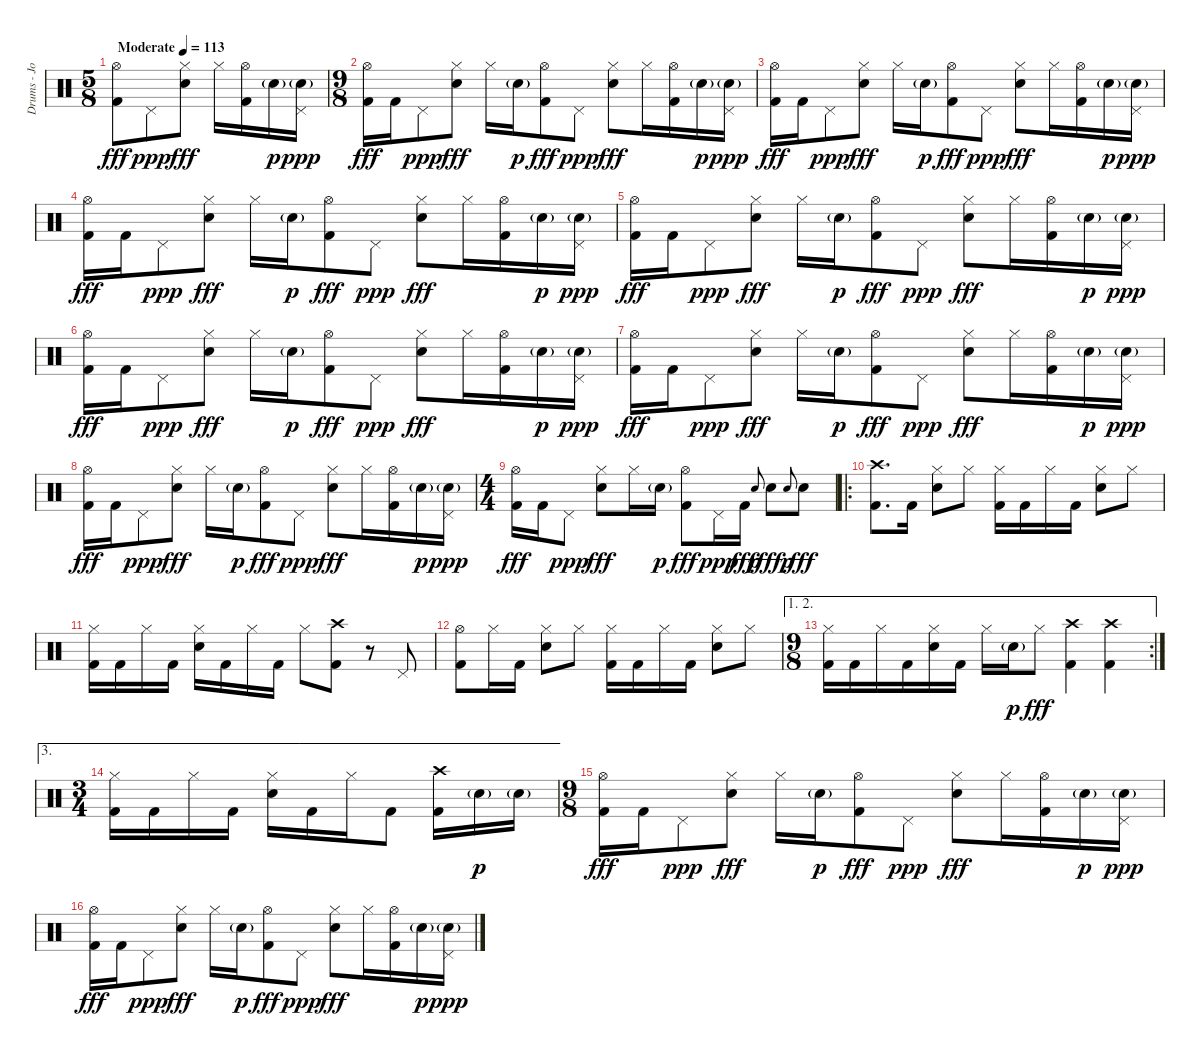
\track ("Drums - John Bonham" "Drums - Jo") {instrument percussion}
\staff {score}
\articulation defaults
\ts (5 8)
\tempo (113 "Moderate")
\clef neutral
\ks c
("Hi-Hat (open)" "Kick (hit) 2").8{dy fff} "Pedal Hi-Hat (hit)".8{dy ppp} ("Hi-Hat (closed)" "Electric Snare (hit)").8{dy fff} "Hi-Hat (closed)".16 ("Hi-Hat (open)" "Kick (hit) 2").16 "Electric Snare (hit)"{g}.16{dy p} ("Electric Snare (hit)"{g} "Pedal Hi-Hat (hit)").16{dy ppp} |
\ts (9 8)
("Hi-Hat (open)" "Kick (hit) 2").16{dy fff} "Kick (hit) 2".16 "Pedal Hi-Hat (hit)".8{dy ppp} ("Hi-Hat (closed)" "Electric Snare (hit)").8{dy fff} "Hi-Hat (closed)".16 "Electric Snare (hit)"{g}.16{dy p} ("Hi-Hat (open)" "Kick (hit) 2").8{dy fff} "Pedal Hi-Hat (hit)".8{dy ppp} ("Hi-Hat (closed)" "Electric Snare (hit)").8{dy fff} "Hi-Hat (closed)".16 ("Hi-Hat (open)" "Kick (hit) 2").16 "Electric Snare (hit)"{g}.16{dy p} ("Electric Snare (hit)"{g} "Pedal Hi-Hat (hit)").16{dy ppp} |
("Hi-Hat (open)" "Kick (hit) 2").16{dy fff} "Kick (hit) 2".16 "Pedal Hi-Hat (hit)".8{dy ppp} ("Hi-Hat (closed)" "Electric Snare (hit)").8{dy fff} "Hi-Hat (closed)".16 "Electric Snare (hit)"{g}.16{dy p} ("Hi-Hat (open)" "Kick (hit) 2").8{dy fff} "Pedal Hi-Hat (hit)".8{dy ppp} ("Hi-Hat (closed)" "Electric Snare (hit)").8{dy fff} "Hi-Hat (closed)".16 ("Hi-Hat (open)" "Kick (hit) 2").16 "Electric Snare (hit)"{g}.16{dy p} ("Electric Snare (hit)"{g} "Pedal Hi-Hat (hit)").16{dy ppp} |
("Hi-Hat (open)" "Kick (hit) 2").16{dy fff} "Kick (hit) 2".16 "Pedal Hi-Hat (hit)".8{dy ppp} ("Hi-Hat (closed)" "Electric Snare (hit)").8{dy fff} "Hi-Hat (closed)".16 "Electric Snare (hit)"{g}.16{dy p} ("Hi-Hat (open)" "Kick (hit) 2").8{dy fff} "Pedal Hi-Hat (hit)".8{dy ppp} ("Hi-Hat (closed)" "Electric Snare (hit)").8{dy fff} "Hi-Hat (closed)".16 ("Hi-Hat (open)" "Kick (hit) 2").16 "Electric Snare (hit)"{g}.16{dy p} ("Electric Snare (hit)"{g} "Pedal Hi-Hat (hit)").16{dy ppp} |
("Hi-Hat (open)" "Kick (hit) 2").16{dy fff} "Kick (hit) 2".16 "Pedal Hi-Hat (hit)".8{dy ppp} ("Hi-Hat (closed)" "Electric Snare (hit)").8{dy fff} "Hi-Hat (closed)".16 "Electric Snare (hit)"{g}.16{dy p} ("Hi-Hat (open)" "Kick (hit) 2").8{dy fff} "Pedal Hi-Hat (hit)".8{dy ppp} ("Hi-Hat (closed)" "Electric Snare (hit)").8{dy fff} "Hi-Hat (closed)".16 ("Hi-Hat (open)" "Kick (hit) 2").16 "Electric Snare (hit)"{g}.16{dy p} ("Electric Snare (hit)"{g} "Pedal Hi-Hat (hit)").16{dy ppp} |
("Hi-Hat (open)" "Kick (hit) 2").16{dy fff} "Kick (hit) 2".16 "Pedal Hi-Hat (hit)".8{dy ppp} ("Hi-Hat (closed)" "Electric Snare (hit)").8{dy fff} "Hi-Hat (closed)".16 "Electric Snare (hit)"{g}.16{dy p} ("Hi-Hat (open)" "Kick (hit) 2").8{dy fff} "Pedal Hi-Hat (hit)".8{dy ppp} ("Hi-Hat (closed)" "Electric Snare (hit)").8{dy fff} "Hi-Hat (closed)".16 ("Hi-Hat (open)" "Kick (hit) 2").16 "Electric Snare (hit)"{g}.16{dy p} ("Electric Snare (hit)"{g} "Pedal Hi-Hat (hit)").16{dy ppp} |
("Hi-Hat (open)" "Kick (hit) 2").16{dy fff} "Kick (hit) 2".16 "Pedal Hi-Hat (hit)".8{dy ppp} ("Hi-Hat (closed)" "Electric Snare (hit)").8{dy fff} "Hi-Hat (closed)".16 "Electric Snare (hit)"{g}.16{dy p} ("Hi-Hat (open)" "Kick (hit) 2").8{dy fff} "Pedal Hi-Hat (hit)".8{dy ppp} ("Hi-Hat (closed)" "Electric Snare (hit)").8{dy fff} "Hi-Hat (closed)".16 ("Hi-Hat (open)" "Kick (hit) 2").16 "Electric Snare (hit)"{g}.16{dy p} ("Electric Snare (hit)"{g} "Pedal Hi-Hat (hit)").16{dy ppp} |
("Hi-Hat (open)" "Kick (hit) 2").16{dy fff} "Kick (hit) 2".16 "Pedal Hi-Hat (hit)".8{dy ppp} ("Hi-Hat (closed)" "Electric Snare (hit)").8{dy fff} "Hi-Hat (closed)".16 "Electric Snare (hit)"{g}.16{dy p} ("Hi-Hat (open)" "Kick (hit) 2").8{dy fff} "Pedal Hi-Hat (hit)".8{dy ppp} ("Hi-Hat (closed)" "Electric Snare (hit)").8{dy fff} "Hi-Hat (closed)".16 ("Hi-Hat (open)" "Kick (hit) 2").16 "Electric Snare (hit)"{g}.16{dy p} ("Electric Snare (hit)"{g} "Pedal Hi-Hat (hit)").16{dy ppp} |
\ts (4 4)
("Hi-Hat (open)" "Kick (hit) 2").16{dy fff} "Kick (hit) 2".16 "Pedal Hi-Hat (hit)".8{dy ppp} ("Hi-Hat (closed)" "Electric Snare (hit)").8{dy fff} "Hi-Hat (closed)".16 "Electric Snare (hit)"{g}.16{dy p} ("Hi-Hat (open)" "Kick (hit) 2").8{dy fff} "Pedal Hi-Hat (hit)".16{dy ppp} "Kick (hit) 2".16{dy fff} "Electric Snare (hit)".8{gr onbeat dy p} "Electric Snare (hit)".8{dy fff} "Electric Snare (hit)".8{gr onbeat dy p} "Electric Snare (hit)".8{dy fff} |
\ro
("Crash high (hit)" "Kick (hit) 2").8{d} "Kick (hit) 2".16 ("Hi-Hat (closed)" "Electric Snare (hit)").8 "Hi-Hat (closed)".8 ("Hi-Hat (closed)" "Kick (hit) 2").16 "Kick (hit) 2".16 "Hi-Hat (closed)".16 "Kick (hit) 2".16 ("Hi-Hat (closed)" "Electric Snare (hit)").8 "Hi-Hat (closed)".8 |
("Hi-Hat (closed)" "Kick (hit) 2").16 "Kick (hit) 2".16 "Hi-Hat (closed)".16 "Kick (hit) 2".16 ("Hi-Hat (closed)" "Electric Snare (hit)").16 "Kick (hit) 2".16 "Hi-Hat (closed)".16 "Kick (hit) 2".16 "Hi-Hat (closed)".8 ("Crash high (hit)" "Kick (hit) 2").8 r.8 "Pedal Hi-Hat (hit)".8 |
("Hi-Hat (open)" "Kick (hit) 2").8 "Hi-Hat (closed)".16 "Kick (hit) 2".16 ("Hi-Hat (closed)" "Electric Snare (hit)").8 "Hi-Hat (closed)".8 ("Hi-Hat (closed)" "Kick (hit) 2").16 "Kick (hit) 2".16 "Hi-Hat (closed)".16 "Kick (hit) 2".16 ("Hi-Hat (closed)" "Electric Snare (hit)").8 "Hi-Hat (closed)".8 |
\ae (1 2)
\rc 2
\ts (9 8)
("Hi-Hat (closed)" "Kick (hit) 2").16 "Kick (hit) 2".16 "Hi-Hat (closed)".16 "Kick (hit) 2".16 ("Hi-Hat (closed)" "Electric Snare (hit)").16 "Kick (hit) 2".16 "Hi-Hat (closed)".16 "Electric Snare (hit)"{g}.16{dy p} "Hi-Hat (closed)".8{dy fff} ("Crash high (hit)" "Kick (hit) 2").4 ("Crash high (hit)" "Kick (hit) 2").4 |
\ae 3
\ts (3 4)
("Hi-Hat (closed)" "Kick (hit) 2").16 "Kick (hit) 2".16 "Hi-Hat (closed)".16 "Kick (hit) 2".16 ("Hi-Hat (closed)" "Electric Snare (hit)").16 "Kick (hit) 2".16 "Hi-Hat (closed)".16 "Kick (hit) 2".8 ("Crash high (hit)" "Kick (hit) 2").16 "Electric Snare (hit)"{g}.16{dy p} "Electric Snare (hit)"{g}.16 |
\ts (9 8)
("Hi-Hat (open)" "Kick (hit) 2").16{dy fff} "Kick (hit) 2".16 "Pedal Hi-Hat (hit)".8{dy ppp} ("Hi-Hat (closed)" "Electric Snare (hit)").8{dy fff} "Hi-Hat (closed)".16 "Electric Snare (hit)"{g}.16{dy p} ("Hi-Hat (open)" "Kick (hit) 2").8{dy fff} "Pedal Hi-Hat (hit)".8{dy ppp} ("Hi-Hat (closed)" "Electric Snare (hit)").8{dy fff} "Hi-Hat (closed)".16 ("Hi-Hat (open)" "Kick (hit) 2").16 "Electric Snare (hit)"{g}.16{dy p} ("Electric Snare (hit)"{g} "Pedal Hi-Hat (hit)").16{dy ppp} |
("Hi-Hat (open)" "Kick (hit) 2").16{dy fff} "Kick (hit) 2".16 "Pedal Hi-Hat (hit)".8{dy ppp} ("Hi-Hat (closed)" "Electric Snare (hit)").8{dy fff} "Hi-Hat (closed)".16 "Electric Snare (hit)"{g}.16{dy p} ("Hi-Hat (open)" "Kick (hit) 2").8{dy fff} "Pedal Hi-Hat (hit)".8{dy ppp} ("Hi-Hat (closed)" "Electric Snare (hit)").8{dy fff} "Hi-Hat (closed)".16 ("Hi-Hat (open)" "Kick (hit) 2").16 "Electric Snare (hit)"{g}.16{dy p} ("Electric Snare (hit)"{g} "Pedal Hi-Hat (hit)").16{dy ppp}
